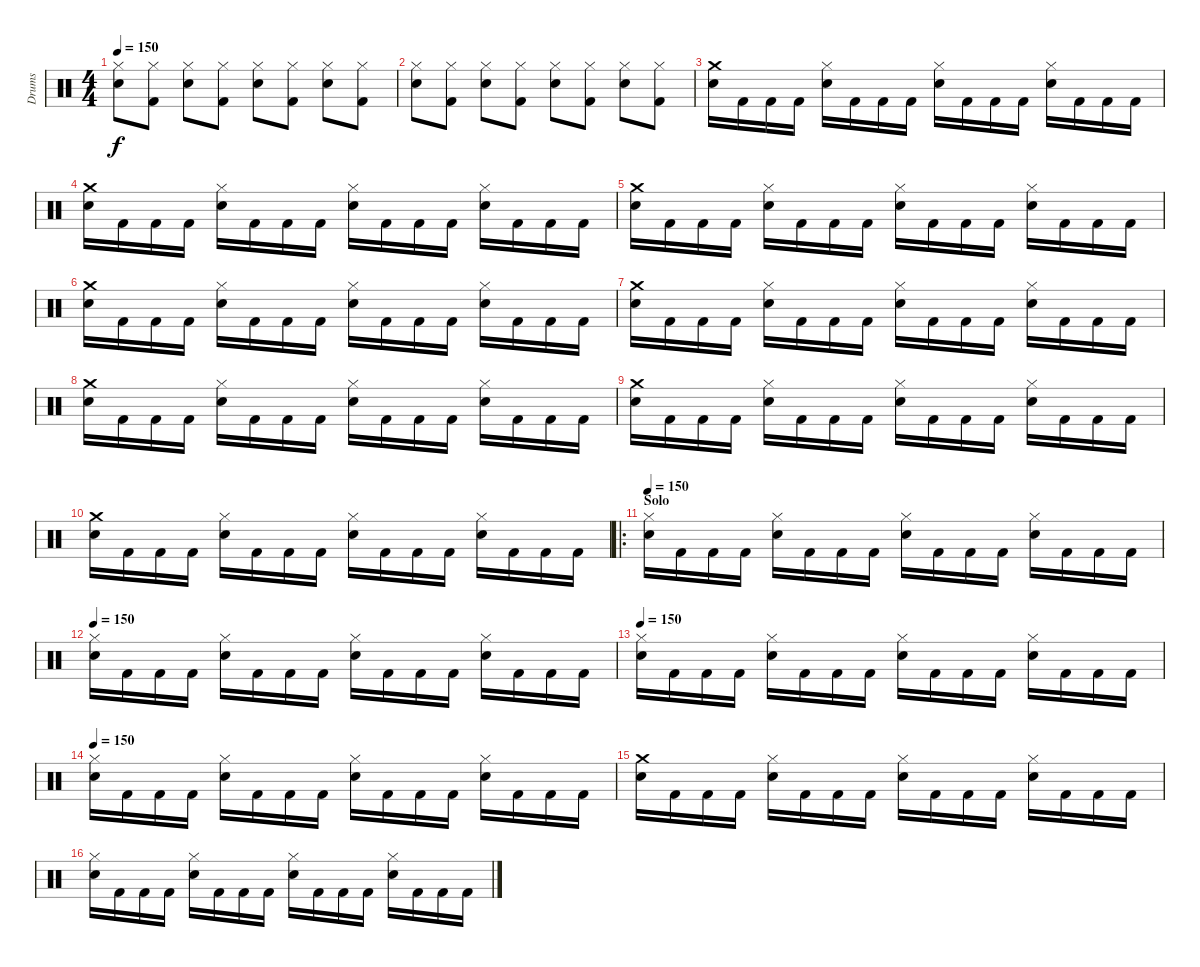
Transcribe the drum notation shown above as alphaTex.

\track ("Drums" "Drums") {instrument percussion}
\staff {score}
\articulation defaults
\ts (4 4)
\tempo 150
\clef neutral
\ks c
("Hi-Hat (closed)" "Electric Snare (hit)").8{dy f} ("Kick (hit) 2" "Hi-Hat (closed)").8 ("Electric Snare (hit)" "Hi-Hat (closed)").8 ("Hi-Hat (closed)" "Kick (hit) 2").8 ("Hi-Hat (closed)" "Electric Snare (hit)").8 ("Kick (hit) 2" "Hi-Hat (closed)").8 ("Hi-Hat (closed)" "Electric Snare (hit)").8 ("Kick (hit) 2" "Hi-Hat (closed)").8 |
("Hi-Hat (closed)" "Electric Snare (hit)").8 ("Kick (hit) 2" "Hi-Hat (closed)").8 ("Electric Snare (hit)" "Hi-Hat (closed)").8 ("Hi-Hat (closed)" "Kick (hit) 2").8 ("Hi-Hat (closed)" "Electric Snare (hit)").8 ("Kick (hit) 2" "Hi-Hat (closed)").8 ("Hi-Hat (closed)" "Electric Snare (hit)").8 ("Kick (hit) 2" "Hi-Hat (closed)").8 |
("Crash medium (hit)" "Electric Snare (hit)").16 "Kick (hit) 2".16 "Kick (hit) 2".16 "Kick (hit) 2".16 ("Electric Snare (hit)" "Hi-Hat (closed)").16 "Kick (hit) 2".16 "Kick (hit) 2".16 "Kick (hit) 2".16 ("Hi-Hat (closed)" "Electric Snare (hit)").16 "Kick (hit) 2".16 "Kick (hit) 2".16 "Kick (hit) 2".16 ("Electric Snare (hit)" "Hi-Hat (closed)").16 "Kick (hit) 2".16 "Kick (hit) 2".16 "Kick (hit) 2".16 |
("Crash medium (hit)" "Electric Snare (hit)").16 "Kick (hit) 2".16 "Kick (hit) 2".16 "Kick (hit) 2".16 ("Electric Snare (hit)" "Hi-Hat (closed)").16 "Kick (hit) 2".16 "Kick (hit) 2".16 "Kick (hit) 2".16 ("Hi-Hat (closed)" "Electric Snare (hit)").16 "Kick (hit) 2".16 "Kick (hit) 2".16 "Kick (hit) 2".16 ("Electric Snare (hit)" "Hi-Hat (closed)").16 "Kick (hit) 2".16 "Kick (hit) 2".16 "Kick (hit) 2".16 |
("Crash medium (hit)" "Electric Snare (hit)").16 "Kick (hit) 2".16 "Kick (hit) 2".16 "Kick (hit) 2".16 ("Electric Snare (hit)" "Hi-Hat (closed)").16 "Kick (hit) 2".16 "Kick (hit) 2".16 "Kick (hit) 2".16 ("Hi-Hat (closed)" "Electric Snare (hit)").16 "Kick (hit) 2".16 "Kick (hit) 2".16 "Kick (hit) 2".16 ("Electric Snare (hit)" "Hi-Hat (closed)").16 "Kick (hit) 2".16 "Kick (hit) 2".16 "Kick (hit) 2".16 |
("Crash medium (hit)" "Electric Snare (hit)").16 "Kick (hit) 2".16 "Kick (hit) 2".16 "Kick (hit) 2".16 ("Electric Snare (hit)" "Hi-Hat (closed)").16 "Kick (hit) 2".16 "Kick (hit) 2".16 "Kick (hit) 2".16 ("Hi-Hat (closed)" "Electric Snare (hit)").16 "Kick (hit) 2".16 "Kick (hit) 2".16 "Kick (hit) 2".16 ("Electric Snare (hit)" "Hi-Hat (closed)").16 "Kick (hit) 2".16 "Kick (hit) 2".16 "Kick (hit) 2".16 |
("Crash medium (hit)" "Electric Snare (hit)").16 "Kick (hit) 2".16 "Kick (hit) 2".16 "Kick (hit) 2".16 ("Electric Snare (hit)" "Hi-Hat (closed)").16 "Kick (hit) 2".16 "Kick (hit) 2".16 "Kick (hit) 2".16 ("Hi-Hat (closed)" "Electric Snare (hit)").16 "Kick (hit) 2".16 "Kick (hit) 2".16 "Kick (hit) 2".16 ("Electric Snare (hit)" "Hi-Hat (closed)").16 "Kick (hit) 2".16 "Kick (hit) 2".16 "Kick (hit) 2".16 |
("Crash medium (hit)" "Electric Snare (hit)").16 "Kick (hit) 2".16 "Kick (hit) 2".16 "Kick (hit) 2".16 ("Electric Snare (hit)" "Hi-Hat (closed)").16 "Kick (hit) 2".16 "Kick (hit) 2".16 "Kick (hit) 2".16 ("Hi-Hat (closed)" "Electric Snare (hit)").16 "Kick (hit) 2".16 "Kick (hit) 2".16 "Kick (hit) 2".16 ("Electric Snare (hit)" "Hi-Hat (closed)").16 "Kick (hit) 2".16 "Kick (hit) 2".16 "Kick (hit) 2".16 |
("Crash medium (hit)" "Electric Snare (hit)").16 "Kick (hit) 2".16 "Kick (hit) 2".16 "Kick (hit) 2".16 ("Electric Snare (hit)" "Hi-Hat (closed)").16 "Kick (hit) 2".16 "Kick (hit) 2".16 "Kick (hit) 2".16 ("Hi-Hat (closed)" "Electric Snare (hit)").16 "Kick (hit) 2".16 "Kick (hit) 2".16 "Kick (hit) 2".16 ("Electric Snare (hit)" "Hi-Hat (closed)").16 "Kick (hit) 2".16 "Kick (hit) 2".16 "Kick (hit) 2".16 |
("Crash medium (hit)" "Electric Snare (hit)").16 "Kick (hit) 2".16 "Kick (hit) 2".16 "Kick (hit) 2".16 ("Electric Snare (hit)" "Hi-Hat (closed)").16 "Kick (hit) 2".16 "Kick (hit) 2".16 "Kick (hit) 2".16 ("Hi-Hat (closed)" "Electric Snare (hit)").16 "Kick (hit) 2".16 "Kick (hit) 2".16 "Kick (hit) 2".16 ("Electric Snare (hit)" "Hi-Hat (closed)").16 "Kick (hit) 2".16 "Kick (hit) 2".16 "Kick (hit) 2".16 |
\ro
\section ("" "Solo ")
\tempo 150
("Hi-Hat (closed)" "Electric Snare (hit)").16 "Kick (hit) 2".16 "Kick (hit) 2".16 "Kick (hit) 2".16 ("Electric Snare (hit)" "Hi-Hat (closed)").16 "Kick (hit) 2".16 "Kick (hit) 2".16 "Kick (hit) 2".16 ("Electric Snare (hit)" "Hi-Hat (closed)").16 "Kick (hit) 2".16 "Kick (hit) 2".16 "Kick (hit) 2".16 ("Hi-Hat (closed)" "Electric Snare (hit)").16 "Kick (hit) 2".16 "Kick (hit) 2".16 "Kick (hit) 2".16 |
\tempo 150
("Hi-Hat (closed)" "Electric Snare (hit)").16 "Kick (hit) 2".16 "Kick (hit) 2".16 "Kick (hit) 2".16 ("Electric Snare (hit)" "Hi-Hat (closed)").16 "Kick (hit) 2".16 "Kick (hit) 2".16 "Kick (hit) 2".16 ("Electric Snare (hit)" "Hi-Hat (closed)").16 "Kick (hit) 2".16 "Kick (hit) 2".16 "Kick (hit) 2".16 ("Hi-Hat (closed)" "Electric Snare (hit)").16 "Kick (hit) 2".16 "Kick (hit) 2".16 "Kick (hit) 2".16 |
\tempo 150
("Hi-Hat (closed)" "Electric Snare (hit)").16 "Kick (hit) 2".16 "Kick (hit) 2".16 "Kick (hit) 2".16 ("Electric Snare (hit)" "Hi-Hat (closed)").16 "Kick (hit) 2".16 "Kick (hit) 2".16 "Kick (hit) 2".16 ("Electric Snare (hit)" "Hi-Hat (closed)").16 "Kick (hit) 2".16 "Kick (hit) 2".16 "Kick (hit) 2".16 ("Hi-Hat (closed)" "Electric Snare (hit)").16 "Kick (hit) 2".16 "Kick (hit) 2".16 "Kick (hit) 2".16 |
\tempo 150
("Hi-Hat (closed)" "Electric Snare (hit)").16 "Kick (hit) 2".16 "Kick (hit) 2".16 "Kick (hit) 2".16 ("Electric Snare (hit)" "Hi-Hat (closed)").16 "Kick (hit) 2".16 "Kick (hit) 2".16 "Kick (hit) 2".16 ("Electric Snare (hit)" "Hi-Hat (closed)").16 "Kick (hit) 2".16 "Kick (hit) 2".16 "Kick (hit) 2".16 ("Hi-Hat (closed)" "Electric Snare (hit)").16 "Kick (hit) 2".16 "Kick (hit) 2".16 "Kick (hit) 2".16 |
("Crash medium (hit)" "Electric Snare (hit)").16 "Kick (hit) 2".16 "Kick (hit) 2".16 "Kick (hit) 2".16 ("Electric Snare (hit)" "Hi-Hat (closed)").16 "Kick (hit) 2".16 "Kick (hit) 2".16 "Kick (hit) 2".16 ("Electric Snare (hit)" "Hi-Hat (closed)").16 "Kick (hit) 2".16 "Kick (hit) 2".16 "Kick (hit) 2".16 ("Hi-Hat (closed)" "Electric Snare (hit)").16 "Kick (hit) 2".16 "Kick (hit) 2".16 "Kick (hit) 2".16 |
("Hi-Hat (closed)" "Electric Snare (hit)").16 "Kick (hit) 2".16 "Kick (hit) 2".16 "Kick (hit) 2".16 ("Electric Snare (hit)" "Hi-Hat (closed)").16 "Kick (hit) 2".16 "Kick (hit) 2".16 "Kick (hit) 2".16 ("Electric Snare (hit)" "Hi-Hat (closed)").16 "Kick (hit) 2".16 "Kick (hit) 2".16 "Kick (hit) 2".16 ("Hi-Hat (closed)" "Electric Snare (hit)").16 "Kick (hit) 2".16 "Kick (hit) 2".16 "Kick (hit) 2".16
